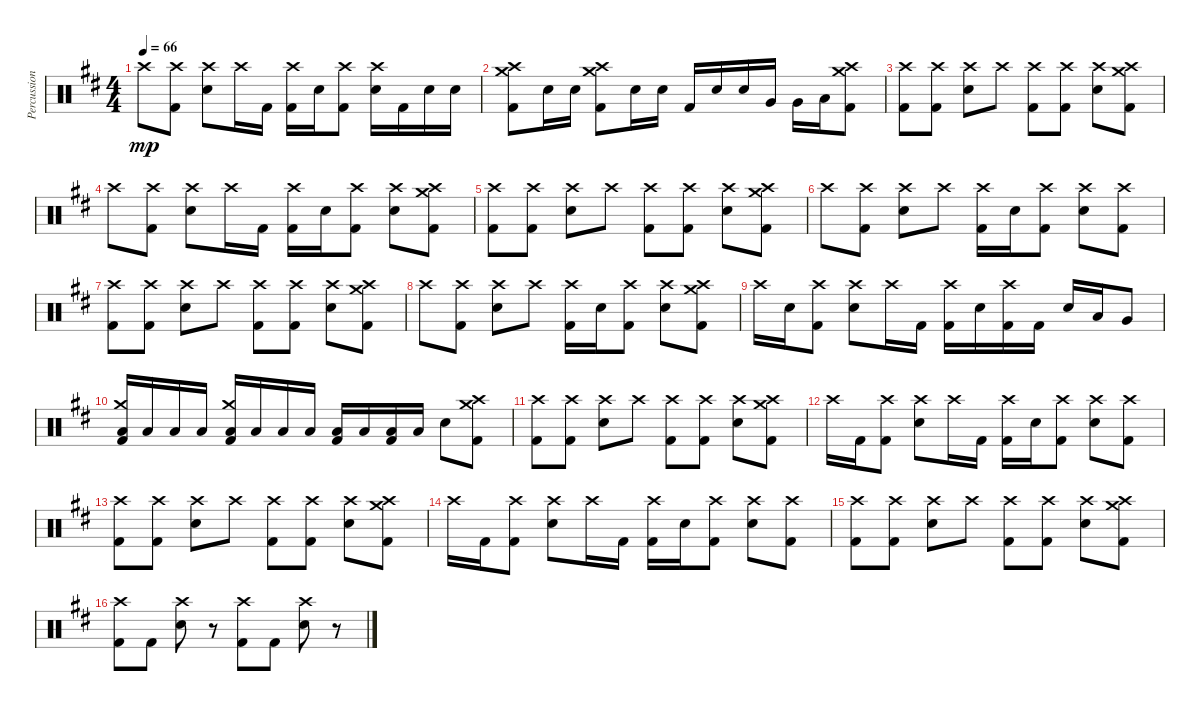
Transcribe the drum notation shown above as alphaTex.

\track ("Percussion" "Percussion") {instrument percussion}
\staff {score}
\articulation defaults
\ts (4 4)
\tempo 66
\clef neutral
\ks d "Crash high (hit)".8{dy mp}
("Crash high (hit)" "Kick (hit) 2").8 ("Crash high (hit)" "Snare (hit) 2").8 "Crash high (hit)".16 "Kick (hit) 2".16 ("Crash high (hit)" "Kick (hit) 2").16 "Snare (hit) 2".16 ("Crash high (hit)" "Kick (hit) 2").8 ("Crash high (hit)" "Snare (hit) 2").16 "Kick (hit) 2".16 "Snare (hit) 2".16 "Snare (hit) 2".16 |
("Crash medium (hit)" "Crash high (hit)" "Kick (hit) 2").8 "Snare (hit) 2".16 "Snare (hit) 2".16 ("Crash medium (hit)" "Crash high (hit)" "Kick (hit) 2").8 "Snare (hit) 2".16 "Snare (hit) 2".16 "Kick (hit) 2".16 "Snare (hit) 2".16 "Snare (hit) 2".16 "Very Low Tom (hit)".16 "Very Low Tom (hit)".16 "Low Floor Tom (hit)".16 ("Crash high (hit)" "Crash medium (hit)" "Kick (hit) 2").8 |
("Crash high (hit)" "Kick (hit) 2").8 ("Crash high (hit)" "Kick (hit) 2").8 ("Crash high (hit)" "Snare (hit) 2").8 "Crash high (hit)".8 ("Crash high (hit)" "Kick (hit) 2").8 ("Crash high (hit)" "Kick (hit) 2").8 ("Crash high (hit)" "Snare (hit) 2").8 ("Crash high (hit)" "Crash medium (hit)" "Kick (hit) 2").8 |
"Crash high (hit)".8 ("Crash high (hit)" "Kick (hit) 2").8 ("Crash high (hit)" "Snare (hit) 2").8 "Crash high (hit)".16 "Kick (hit) 2".16 ("Crash high (hit)" "Kick (hit) 2").16 "Snare (hit) 2".16 ("Crash high (hit)" "Kick (hit) 2").8 ("Crash high (hit)" "Snare (hit) 2").8 ("Crash high (hit)" "Crash medium (hit)" "Kick (hit) 2").8 |
("Crash high (hit)" "Kick (hit) 2").8 ("Crash high (hit)" "Kick (hit) 2").8 ("Crash high (hit)" "Snare (hit) 2").8 "Crash high (hit)".8 ("Crash high (hit)" "Kick (hit) 2").8 ("Crash high (hit)" "Kick (hit) 2").8 ("Crash high (hit)" "Snare (hit) 2").8 ("Crash high (hit)" "Crash medium (hit)" "Kick (hit) 2").8 |
"Crash high (hit)".8 ("Crash high (hit)" "Kick (hit) 2").8 ("Crash high (hit)" "Snare (hit) 2").8 "Crash high (hit)".8 ("Crash high (hit)" "Kick (hit) 2").16 "Snare (hit) 2".16 ("Crash high (hit)" "Kick (hit) 2").8 ("Crash high (hit)" "Snare (hit) 2").8 ("Crash high (hit)" "Kick (hit) 2").8 |
("Crash high (hit)" "Kick (hit) 2").8 ("Crash high (hit)" "Kick (hit) 2").8 ("Crash high (hit)" "Snare (hit) 2").8 "Crash high (hit)".8 ("Crash high (hit)" "Kick (hit) 2").8 ("Crash high (hit)" "Kick (hit) 2").8 ("Crash high (hit)" "Snare (hit) 2").8 ("Crash high (hit)" "Crash medium (hit)" "Kick (hit) 2").8 |
"Crash high (hit)".8 ("Crash high (hit)" "Kick (hit) 2").8 ("Crash high (hit)" "Snare (hit) 2").8 "Crash high (hit)".8 ("Crash high (hit)" "Kick (hit) 2").16 "Snare (hit) 2".16 ("Crash high (hit)" "Kick (hit) 2").8 ("Crash high (hit)" "Snare (hit) 2").8 ("Crash high (hit)" "Crash medium (hit)" "Kick (hit) 2").8 |
"Crash high (hit)".16 "Snare (hit) 2".16 ("Crash high (hit)" "Kick (hit) 2").8 ("Crash high (hit)" "Snare (hit) 2").8 "Crash high (hit)".16 "Kick (hit) 2".16 ("Crash high (hit)" "Kick (hit) 2").16 "Snare (hit) 2".16 ("Crash high (hit)" "Kick (hit) 2").16 "Kick (hit) 2".16 "Snare (hit) 2".16 "Low Tom (hit)".16 "Very Low Tom (hit)".8 |
("Crash medium (hit)" "Low Floor Tom (hit)" "Kick (hit) 2").16 "Low Floor Tom (hit)".16 "Low Floor Tom (hit)".16 "Low Floor Tom (hit)".16 ("Crash medium (hit)" "Low Floor Tom (hit)" "Kick (hit) 2").16 "Low Floor Tom (hit)".16 "Low Floor Tom (hit)".16 "Low Floor Tom (hit)".16 ("Low Floor Tom (hit)" "Kick (hit) 2").16 "Low Floor Tom (hit)".16 ("Low Floor Tom (hit)" "Kick (hit) 2").16 "Low Floor Tom (hit)".16 "Snare (hit) 2".8 ("Crash high (hit)" "Crash medium (hit)" "Kick (hit) 2").8 |
("Crash high (hit)" "Kick (hit) 2").8 ("Crash high (hit)" "Kick (hit) 2").8 ("Crash high (hit)" "Snare (hit) 2").8 "Crash high (hit)".8 ("Crash high (hit)" "Kick (hit) 2").8 ("Crash high (hit)" "Kick (hit) 2").8 ("Crash high (hit)" "Snare (hit) 2").8 ("Crash high (hit)" "Crash medium (hit)" "Kick (hit) 2").8 |
"Crash high (hit)".16 "Kick (hit) 2".16 ("Crash high (hit)" "Kick (hit) 2").8 ("Crash high (hit)" "Snare (hit) 2").8 "Crash high (hit)".16 "Kick (hit) 2".16 ("Crash high (hit)" "Kick (hit) 2").16 "Snare (hit) 2".16 ("Crash high (hit)" "Kick (hit) 2").8 ("Crash high (hit)" "Snare (hit) 2").8 ("Crash high (hit)" "Kick (hit) 2").8 |
("Crash high (hit)" "Kick (hit) 2").8 ("Crash high (hit)" "Kick (hit) 2").8 ("Crash high (hit)" "Snare (hit) 2").8 "Crash high (hit)".8 ("Crash high (hit)" "Kick (hit) 2").8 ("Crash high (hit)" "Kick (hit) 2").8 ("Crash high (hit)" "Snare (hit) 2").8 ("Crash high (hit)" "Crash medium (hit)" "Kick (hit) 2").8 |
"Crash high (hit)".16 "Kick (hit) 2".16 ("Crash high (hit)" "Kick (hit) 2").8 ("Crash high (hit)" "Snare (hit) 2").8 "Crash high (hit)".16 "Kick (hit) 2".16 ("Crash high (hit)" "Kick (hit) 2").16 "Snare (hit) 2".16 ("Crash high (hit)" "Kick (hit) 2").8 ("Crash high (hit)" "Snare (hit) 2").8 ("Crash high (hit)" "Kick (hit) 2").8 |
("Crash high (hit)" "Kick (hit) 2").8 ("Crash high (hit)" "Kick (hit) 2").8 ("Crash high (hit)" "Snare (hit) 2").8 "Crash high (hit)".8 ("Crash high (hit)" "Kick (hit) 2").8 ("Crash high (hit)" "Kick (hit) 2").8 ("Crash high (hit)" "Snare (hit) 2").8 ("Crash high (hit)" "Crash medium (hit)" "Kick (hit) 2").8 |
("Crash high (hit)" "Kick (hit) 2").8 "Kick (hit) 2".8 ("Crash high (hit)" "Snare (hit) 2").8 r.8 ("Crash high (hit)" "Kick (hit) 2").8 "Kick (hit) 2".8 ("Crash high (hit)" "Snare (hit) 2").8 r.8
